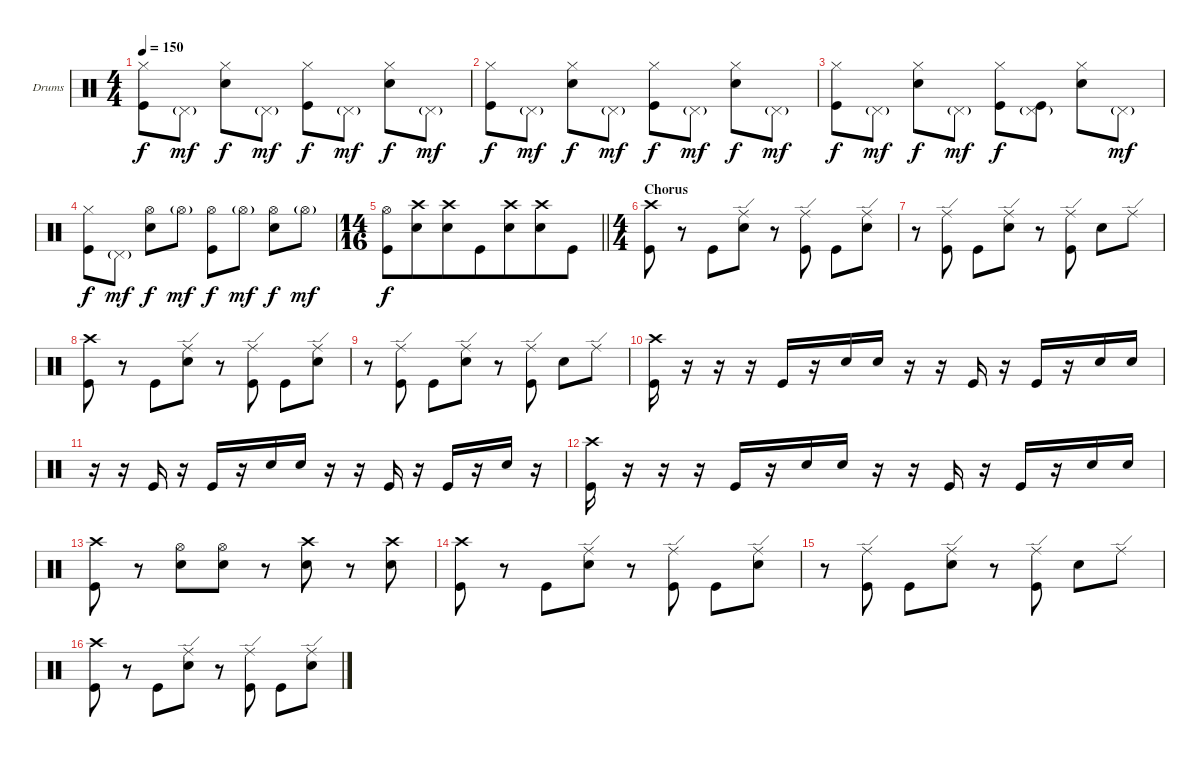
\bracketExtendMode nobrackets
\firstSystemTrackNameOrientation horizontal
\otherSystemsTrackNameOrientation horizontal
\track ("Drumkit" "Drums") {instrument percussion}
\staff {score}
\articulation defaults
\ts (4 4)
\tempo 150
\clef neutral
\ks c
("Hi-Hat (closed)" "Kick (hit)").8{dy f} "Pedal Hi-Hat (hit)"{g}.8{dy mf} ("Hi-Hat (closed)" "Snare (hit) 2").8{dy f} "Pedal Hi-Hat (hit)"{g}.8{dy mf} ("Hi-Hat (closed)" "Kick (hit)").8{dy f} "Pedal Hi-Hat (hit)"{g}.8{dy mf} ("Hi-Hat (closed)" "Snare (hit) 2").8{dy f} "Pedal Hi-Hat (hit)"{g}.8{dy mf} |
("Hi-Hat (closed)" "Kick (hit)").8{dy f} "Pedal Hi-Hat (hit)"{g}.8{dy mf} ("Hi-Hat (closed)" "Snare (hit) 2").8{dy f} "Pedal Hi-Hat (hit)"{g}.8{dy mf} ("Hi-Hat (closed)" "Kick (hit)").8{dy f} "Pedal Hi-Hat (hit)"{g}.8{dy mf} ("Hi-Hat (closed)" "Snare (hit) 2").8{dy f} "Pedal Hi-Hat (hit)"{g}.8{dy mf} |
("Hi-Hat (closed)" "Kick (hit)").8{dy f} "Pedal Hi-Hat (hit)"{g}.8{dy mf} ("Hi-Hat (closed)" "Snare (hit) 2").8{dy f} "Pedal Hi-Hat (hit)"{g}.8{dy mf} ("Hi-Hat (closed)" "Kick (hit)").8{dy f} ("Pedal Hi-Hat (hit)"{g} "Kick (hit)").8 ("Hi-Hat (closed)" "Snare (hit) 2").8 "Pedal Hi-Hat (hit)"{g}.8{dy mf} |
("Hi-Hat (closed)" "Kick (hit)").8{dy f} "Pedal Hi-Hat (hit)"{g}.8{dy mf} ("Hi-Hat (open)" "Snare (hit) 2").8{dy f} "Hi-Hat (open)"{g}.8{dy mf} ("Hi-Hat (open)" "Kick (hit)").8{dy f} "Hi-Hat (open)"{g}.8{dy mf} ("Hi-Hat (open)" "Snare (hit) 2").8{dy f} "Hi-Hat (open)"{g}.8{dy mf} |
\ts (14 16)
\beaming (8 7)
\barLineRight lightlight
("Hi-Hat (open)" "Kick (hit)").8{dy f} ("Crash high (hit)" "Snare (hit) 2").8 ("Crash high (hit)" "Snare (hit) 2").8 "Kick (hit)".8 ("Crash high (hit)" "Snare (hit) 2").8 ("Crash high (hit)" "Snare (hit) 2").8 "Kick (hit)".8 |
\ts (4 4)
\beaming (8 2 2 2 2)
\section ("" "Chorus")
("Crash high (hit)" "Kick (hit)").8 r.8 "Kick (hit)".8 ("Ride (edge)" "Snare (hit) 2").8 r.8 ("Ride (edge)" "Kick (hit)").8 "Kick (hit)".8 ("Ride (edge)" "Snare (hit) 2").8 |
r.8 ("Ride (edge)" "Kick (hit)").8 "Kick (hit)".8 ("Ride (edge)" "Snare (hit) 2").8 r.8 ("Ride (edge)" "Kick (hit)").8 "Snare (hit) 2".8 "Ride (edge)".8 |
("Crash high (hit)" "Kick (hit)").8 r.8 "Kick (hit)".8 ("Ride (edge)" "Snare (hit) 2").8 r.8 ("Ride (edge)" "Kick (hit)").8 "Kick (hit)".8 ("Ride (edge)" "Snare (hit) 2").8 |
r.8 ("Ride (edge)" "Kick (hit)").8 "Kick (hit)".8 ("Ride (edge)" "Snare (hit) 2").8 r.8 ("Ride (edge)" "Kick (hit)").8 "Snare (hit) 2".8 "Ride (edge)".8 |
("Crash high (hit)" "Kick (hit)").16 r.16 r.16 r.16 "Kick (hit)".16 r.16 "Snare (hit) 2".16 "Snare (hit) 2".16 r.16 r.16 "Kick (hit)".16 r.16 "Kick (hit)".16 r.16 "Snare (hit) 2".16 "Snare (hit) 2".16 |
r.16 r.16 "Kick (hit)".16 r.16 "Kick (hit)".16 r.16 "Snare (hit) 2".16 "Snare (hit) 2".16 r.16 r.16 "Kick (hit)".16 r.16 "Kick (hit)".16 r.16 "Snare (hit) 2".16 r.16 |
("Crash high (hit)" "Kick (hit)").16 r.16 r.16 r.16 "Kick (hit)".16 r.16 "Snare (hit) 2".16 "Snare (hit) 2".16 r.16 r.16 "Kick (hit)".16 r.16 "Kick (hit)".16 r.16 "Snare (hit) 2".16 "Snare (hit) 2".16 |
("Crash high (hit)" "Kick (hit)").8 r.8 ("Hi-Hat (open)" "Snare (hit) 2").8 ("Hi-Hat (open)" "Snare (hit) 2").8 r.8 ("Crash high (hit)" "Snare (hit) 2").8 r.8 ("Crash high (hit)" "Snare (hit) 2").8 |
("Crash high (hit)" "Kick (hit)").8 r.8 "Kick (hit)".8 ("Ride (edge)" "Snare (hit) 2").8 r.8 ("Ride (edge)" "Kick (hit)").8 "Kick (hit)".8 ("Ride (edge)" "Snare (hit) 2").8 |
r.8 ("Ride (edge)" "Kick (hit)").8 "Kick (hit)".8 ("Ride (edge)" "Snare (hit) 2").8 r.8 ("Ride (edge)" "Kick (hit)").8 "Snare (hit) 2".8 "Ride (edge)".8 |
("Crash high (hit)" "Kick (hit)").8 r.8 "Kick (hit)".8 ("Ride (edge)" "Snare (hit) 2").8 r.8 ("Ride (edge)" "Kick (hit)").8 "Kick (hit)".8 ("Ride (edge)" "Snare (hit) 2").8
